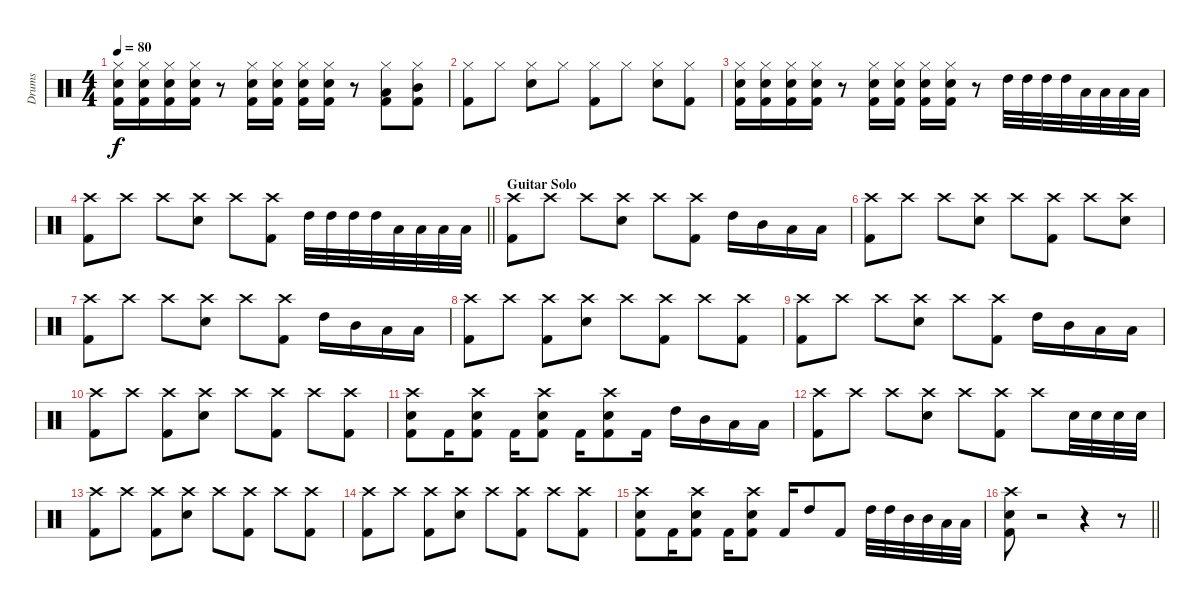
\track ("Drums" "Drums") {instrument percussion}
\staff {score}
\articulation defaults
\ts (4 4)
\tempo 80
\clef neutral
\ks c
("Hi-Hat (closed)" "Electric Snare (hit)" "Kick (hit) 2").16{dy f} ("Hi-Hat (closed)" "Electric Snare (hit)" "Kick (hit) 2").16 ("Hi-Hat (closed)" "Electric Snare (hit)" "Kick (hit) 2").16 ("Hi-Hat (closed)" "Electric Snare (hit)" "Kick (hit) 2").16 r.8 ("Hi-Hat (closed)" "Electric Snare (hit)" "Kick (hit) 2").16 ("Hi-Hat (closed)" "Electric Snare (hit)" "Kick (hit) 2").16 ("Hi-Hat (closed)" "Electric Snare (hit)" "Kick (hit) 2").16 ("Hi-Hat (closed)" "Electric Snare (hit)" "Kick (hit) 2").16 r.8 ("Hi-Hat (closed)" "Low Tom (hit)" "Kick (hit) 2").8 ("Hi-Hat (closed)" "Mid Tom (hit)" "Kick (hit) 2").8 |
("Hi-Hat (closed)" "Kick (hit) 2").8 "Hi-Hat (closed)".8 ("Hi-Hat (closed)" "Electric Snare (hit)").8 "Hi-Hat (closed)".8 ("Hi-Hat (closed)" "Kick (hit) 2").8 "Hi-Hat (closed)".8 ("Hi-Hat (closed)" "Electric Snare (hit)").8 ("Hi-Hat (closed)" "Kick (hit) 2").8 |
("Hi-Hat (closed)" "Electric Snare (hit)" "Kick (hit) 2").16 ("Hi-Hat (closed)" "Electric Snare (hit)" "Kick (hit) 2").16 ("Hi-Hat (closed)" "Electric Snare (hit)" "Kick (hit) 2").16 ("Hi-Hat (closed)" "Electric Snare (hit)" "Kick (hit) 2").16 r.8 ("Hi-Hat (closed)" "Electric Snare (hit)" "Kick (hit) 2").16 ("Hi-Hat (closed)" "Electric Snare (hit)" "Kick (hit) 2").16 ("Hi-Hat (closed)" "Electric Snare (hit)" "Kick (hit) 2").16 ("Hi-Hat (closed)" "Electric Snare (hit)" "Kick (hit) 2").16 r.8 "High Tom (hit)".32 "High Tom (hit)".32 "High Tom (hit)".32 "High Tom (hit)".32 "Low Tom (hit)".32 "Low Tom (hit)".32 "Low Tom (hit)".32 "Low Tom (hit)".32 |
\barLineRight lightlight
("Crash high (hit)" "Kick (hit) 2").8 "Crash high (hit)".8 "Crash high (hit)".8 ("Crash high (hit)" "Electric Snare (hit)").8 "Crash high (hit)".8 ("Crash high (hit)" "Kick (hit) 2").8 "High Tom (hit)".32 "High Tom (hit)".32 "High Tom (hit)".32 "High Tom (hit)".32 "Low Tom (hit)".32 "Low Tom (hit)".32 "Low Tom (hit)".32 "Low Tom (hit)".32 |
\section ("" "Guitar Solo")
("Crash high (hit)" "Kick (hit) 2").8 "Crash high (hit)".8 "Crash high (hit)".8 ("Crash high (hit)" "Electric Snare (hit)").8 "Crash high (hit)".8 ("Crash high (hit)" "Kick (hit) 2").8 "High Tom (hit)".16 "Mid Tom (hit)".16 "Low Tom (hit)".16 "Low Tom (hit)".16 |
("Crash high (hit)" "Kick (hit) 2").8 "Crash high (hit)".8 "Crash high (hit)".8 ("Crash high (hit)" "Electric Snare (hit)").8 "Crash high (hit)".8 ("Crash high (hit)" "Kick (hit) 2").8 "Crash high (hit)".8 ("Crash high (hit)" "Electric Snare (hit)").8 |
("Crash high (hit)" "Kick (hit) 2").8 "Crash high (hit)".8 "Crash high (hit)".8 ("Crash high (hit)" "Electric Snare (hit)").8 "Crash high (hit)".8 ("Crash high (hit)" "Kick (hit) 2").8 "High Tom (hit)".16 "Mid Tom (hit)".16 "Low Tom (hit)".16 "Low Tom (hit)".16 |
("Crash high (hit)" "Kick (hit) 2").8 "Crash high (hit)".8 ("Crash high (hit)" "Kick (hit) 2").8 ("Crash high (hit)" "Electric Snare (hit)").8 "Crash high (hit)".8 ("Crash high (hit)" "Kick (hit) 2").8 "Crash high (hit)".8 ("Crash high (hit)" "Kick (hit) 2").8 |
("Crash high (hit)" "Kick (hit) 2").8 "Crash high (hit)".8 "Crash high (hit)".8 ("Crash high (hit)" "Electric Snare (hit)").8 "Crash high (hit)".8 ("Crash high (hit)" "Kick (hit) 2").8 "High Tom (hit)".16 "Mid Tom (hit)".16 "Low Tom (hit)".16 "Low Tom (hit)".16 |
("Crash high (hit)" "Kick (hit) 2").8 "Crash high (hit)".8 ("Crash high (hit)" "Kick (hit) 2").8 ("Crash high (hit)" "Electric Snare (hit)").8 "Crash high (hit)".8 ("Crash high (hit)" "Kick (hit) 2").8 "Crash high (hit)".8 ("Crash high (hit)" "Kick (hit) 2").8 |
("Crash high (hit)" "Electric Snare (hit)" "Kick (hit) 2").8 "Kick (hit) 2".16 ("Crash high (hit)" "Electric Snare (hit)" "Kick (hit) 2").8 "Kick (hit) 2".16 ("Crash high (hit)" "Electric Snare (hit)" "Kick (hit) 2").8 "Kick (hit) 2".16 ("Crash high (hit)" "Electric Snare (hit)" "Kick (hit) 2").8 "Kick (hit) 2".16 "High Tom (hit)".16 "Mid Tom (hit)".16 "Low Tom (hit)".16 "Low Tom (hit)".16 |
("Crash high (hit)" "Kick (hit) 2").8 "Crash high (hit)".8 "Crash high (hit)".8 ("Crash high (hit)" "Electric Snare (hit)").8 "Crash high (hit)".8 ("Crash high (hit)" "Kick (hit) 2").8 "Crash high (hit)".8 "Electric Snare (hit)".32 "Electric Snare (hit)".32 "Electric Snare (hit)".32 "Electric Snare (hit)".32 |
("Crash high (hit)" "Kick (hit) 2").8 "Crash high (hit)".8 ("Crash high (hit)" "Kick (hit) 2").8 ("Crash high (hit)" "Electric Snare (hit)").8 "Crash high (hit)".8 ("Crash high (hit)" "Kick (hit) 2").8 "Crash high (hit)".8 ("Crash high (hit)" "Kick (hit) 2").8 |
("Crash high (hit)" "Kick (hit) 2").8 "Crash high (hit)".8 ("Crash high (hit)" "Kick (hit) 2").8 ("Crash high (hit)" "Electric Snare (hit)").8 "Crash high (hit)".8 ("Crash high (hit)" "Kick (hit) 2").8 "Crash high (hit)".8 ("Crash high (hit)" "Kick (hit) 2").8 |
("Crash high (hit)" "Electric Snare (hit)" "Kick (hit) 2").8 "Kick (hit) 2".16 ("Crash high (hit)" "Electric Snare (hit)" "Kick (hit) 2").8 "Kick (hit) 2".16 ("Crash high (hit)" "Electric Snare (hit)" "Kick (hit) 2").8 "Kick (hit) 2".16 "High Tom (hit)".8 "Kick (hit) 2".8 "High Tom (hit)".32 "High Tom (hit)".32 "Mid Tom (hit)".32 "Mid Tom (hit)".32 "Low Tom (hit)".32 "Low Tom (hit)".32 |
\barLineRight lightlight
("Crash high (hit)" "Electric Snare (hit)" "Kick (hit) 2").8 r.2 r.4 r.8
